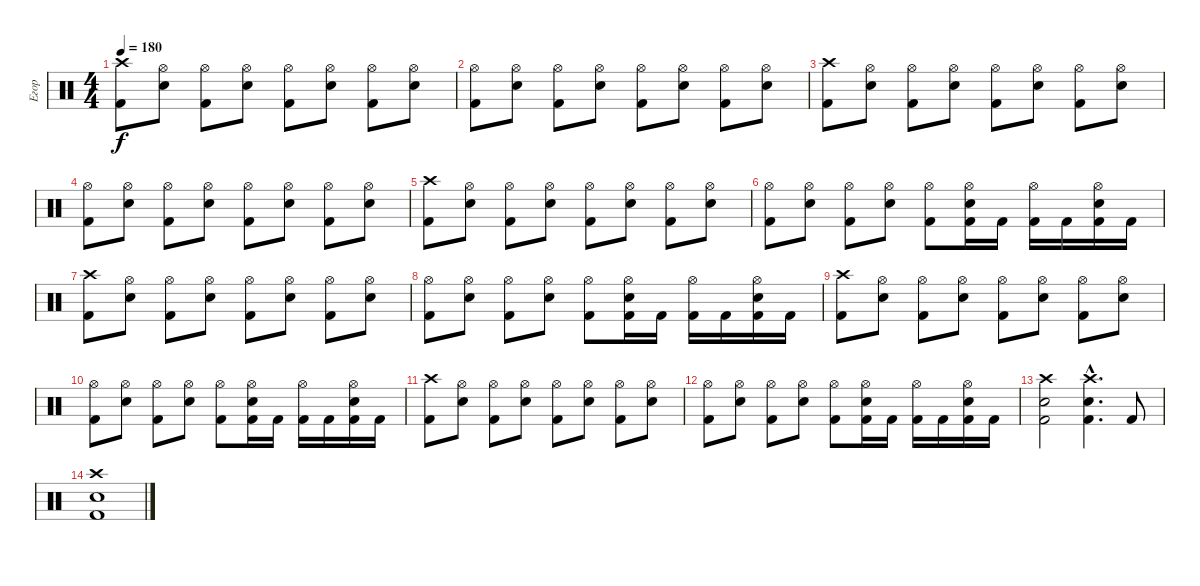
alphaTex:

\track ("Егор" "Егор") {instrument percussion}
\staff {score}
\articulation defaults
\ts (4 4)
\tempo 180
\clef neutral
\ks c
("Crash high (hit)" "Kick (hit) 2").8{dy f} ("Hi-Hat (open)" "Electric Snare (hit)").8 ("Hi-Hat (open)" "Kick (hit) 2").8 ("Hi-Hat (open)" "Electric Snare (hit)").8 ("Hi-Hat (open)" "Kick (hit) 2").8 ("Hi-Hat (open)" "Electric Snare (hit)").8 ("Hi-Hat (open)" "Kick (hit) 2").8 ("Hi-Hat (open)" "Electric Snare (hit)").8 |
("Hi-Hat (open)" "Kick (hit) 2").8 ("Hi-Hat (open)" "Electric Snare (hit)").8 ("Hi-Hat (open)" "Kick (hit) 2").8 ("Hi-Hat (open)" "Electric Snare (hit)").8 ("Hi-Hat (open)" "Kick (hit) 2").8 ("Hi-Hat (open)" "Electric Snare (hit)").8 ("Hi-Hat (open)" "Kick (hit) 2").8 ("Hi-Hat (open)" "Electric Snare (hit)").8 |
("Crash high (hit)" "Kick (hit) 2").8 ("Hi-Hat (open)" "Electric Snare (hit)").8 ("Hi-Hat (open)" "Kick (hit) 2").8 ("Hi-Hat (open)" "Electric Snare (hit)").8 ("Hi-Hat (open)" "Kick (hit) 2").8 ("Hi-Hat (open)" "Electric Snare (hit)").8 ("Hi-Hat (open)" "Kick (hit) 2").8 ("Hi-Hat (open)" "Electric Snare (hit)").8 |
("Hi-Hat (open)" "Kick (hit) 2").8 ("Hi-Hat (open)" "Electric Snare (hit)").8 ("Hi-Hat (open)" "Kick (hit) 2").8 ("Hi-Hat (open)" "Electric Snare (hit)").8 ("Hi-Hat (open)" "Kick (hit) 2").8 ("Hi-Hat (open)" "Electric Snare (hit)").8 ("Hi-Hat (open)" "Kick (hit) 2").8 ("Hi-Hat (open)" "Electric Snare (hit)").8 |
("Crash high (hit)" "Kick (hit) 2").8 ("Hi-Hat (open)" "Electric Snare (hit)").8 ("Hi-Hat (open)" "Kick (hit) 2").8 ("Hi-Hat (open)" "Electric Snare (hit)").8 ("Hi-Hat (open)" "Kick (hit) 2").8 ("Hi-Hat (open)" "Electric Snare (hit)").8 ("Hi-Hat (open)" "Kick (hit) 2").8 ("Hi-Hat (open)" "Electric Snare (hit)").8 |
("Hi-Hat (open)" "Kick (hit) 2").8 ("Hi-Hat (open)" "Electric Snare (hit)").8 ("Hi-Hat (open)" "Kick (hit) 2").8 ("Hi-Hat (open)" "Electric Snare (hit)").8 ("Hi-Hat (open)" "Kick (hit) 2").8 ("Hi-Hat (open)" "Electric Snare (hit)" "Kick (hit) 2").16 "Kick (hit) 2".16 ("Hi-Hat (open)" "Kick (hit) 2").16 "Kick (hit) 2".16 ("Hi-Hat (open)" "Electric Snare (hit)" "Kick (hit) 2").16 "Kick (hit) 2".16 |
("Crash high (hit)" "Kick (hit) 2").8 ("Hi-Hat (open)" "Electric Snare (hit)").8 ("Hi-Hat (open)" "Kick (hit) 2").8 ("Hi-Hat (open)" "Electric Snare (hit)").8 ("Hi-Hat (open)" "Kick (hit) 2").8 ("Hi-Hat (open)" "Electric Snare (hit)").8 ("Hi-Hat (open)" "Kick (hit) 2").8 ("Hi-Hat (open)" "Electric Snare (hit)").8 |
("Hi-Hat (open)" "Kick (hit) 2").8 ("Hi-Hat (open)" "Electric Snare (hit)").8 ("Hi-Hat (open)" "Kick (hit) 2").8 ("Hi-Hat (open)" "Electric Snare (hit)").8 ("Hi-Hat (open)" "Kick (hit) 2").8 ("Hi-Hat (open)" "Electric Snare (hit)" "Kick (hit) 2").16 "Kick (hit) 2".16 ("Hi-Hat (open)" "Kick (hit) 2").16 "Kick (hit) 2".16 ("Hi-Hat (open)" "Electric Snare (hit)" "Kick (hit) 2").16 "Kick (hit) 2".16 |
("Crash high (hit)" "Kick (hit) 2").8 ("Hi-Hat (open)" "Electric Snare (hit)").8 ("Hi-Hat (open)" "Kick (hit) 2").8 ("Hi-Hat (open)" "Electric Snare (hit)").8 ("Hi-Hat (open)" "Kick (hit) 2").8 ("Hi-Hat (open)" "Electric Snare (hit)").8 ("Hi-Hat (open)" "Kick (hit) 2").8 ("Hi-Hat (open)" "Electric Snare (hit)").8 |
("Hi-Hat (open)" "Kick (hit) 2").8 ("Hi-Hat (open)" "Electric Snare (hit)").8 ("Hi-Hat (open)" "Kick (hit) 2").8 ("Hi-Hat (open)" "Electric Snare (hit)").8 ("Hi-Hat (open)" "Kick (hit) 2").8 ("Hi-Hat (open)" "Electric Snare (hit)" "Kick (hit) 2").16 "Kick (hit) 2".16 ("Hi-Hat (open)" "Kick (hit) 2").16 "Kick (hit) 2".16 ("Hi-Hat (open)" "Electric Snare (hit)" "Kick (hit) 2").16 "Kick (hit) 2".16 |
("Crash high (hit)" "Kick (hit) 2").8 ("Hi-Hat (open)" "Electric Snare (hit)").8 ("Hi-Hat (open)" "Kick (hit) 2").8 ("Hi-Hat (open)" "Electric Snare (hit)").8 ("Hi-Hat (open)" "Kick (hit) 2").8 ("Hi-Hat (open)" "Electric Snare (hit)").8 ("Hi-Hat (open)" "Kick (hit) 2").8 ("Hi-Hat (open)" "Electric Snare (hit)").8 |
("Hi-Hat (open)" "Kick (hit) 2").8 ("Hi-Hat (open)" "Electric Snare (hit)").8 ("Hi-Hat (open)" "Kick (hit) 2").8 ("Hi-Hat (open)" "Electric Snare (hit)").8 ("Hi-Hat (open)" "Kick (hit) 2").8 ("Hi-Hat (open)" "Electric Snare (hit)" "Kick (hit) 2").16 "Kick (hit) 2".16 ("Hi-Hat (open)" "Kick (hit) 2").16 "Kick (hit) 2".16 ("Hi-Hat (open)" "Electric Snare (hit)" "Kick (hit) 2").16 "Kick (hit) 2".16 |
("Crash high (hit)" "Electric Snare (hit)" "Kick (hit) 2").2 ("Crash high (hit)"{hac} "Electric Snare (hit)"{hac} "Kick (hit) 2"{hac}).4{d} "Kick (hit) 2".8 |
("Crash high (hit)" "Electric Snare (hit)" "Kick (hit) 2").1
